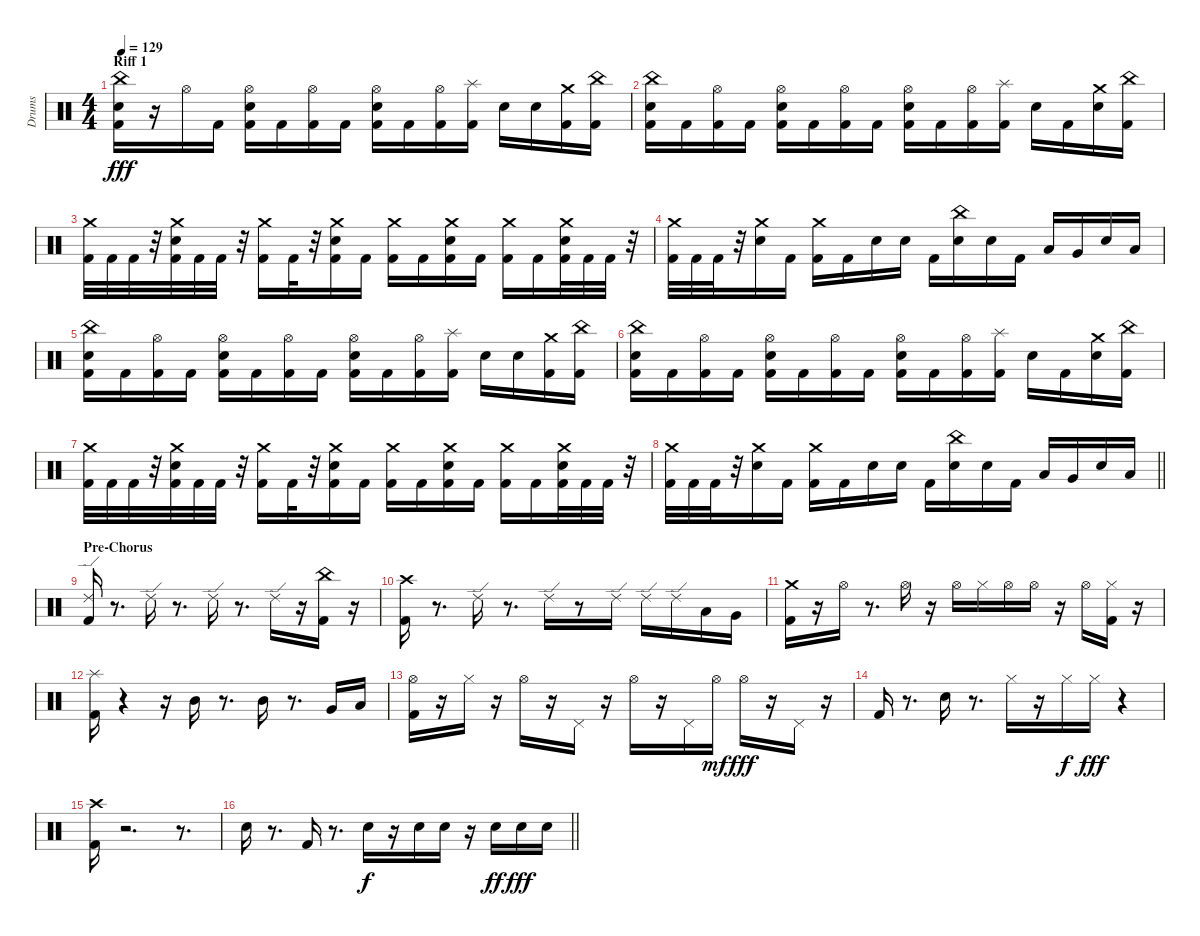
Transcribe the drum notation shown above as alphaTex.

\track ("Drums" "Drums") {instrument percussion}
\staff {score}
\articulation defaults
\ts (4 4)
\section ("" "Riff 1")
\tempo 129
\clef neutral
\ks c
("Kick (hit) 2" "Snare (hit) 2" "China (hit)").16{dy fff} r.16 "Hi-Hat (open)".16 "Kick (hit) 2".16 ("Kick (hit) 2" "Snare (hit) 2" "Hi-Hat (open)").16 "Kick (hit) 2".16 ("Kick (hit) 2" "Hi-Hat (open)").16 "Kick (hit) 2".16 ("Kick (hit) 2" "Snare (hit) 2" "Hi-Hat (open)").16 "Kick (hit) 2".16 ("Kick (hit) 2" "Hi-Hat (open)").16 ("Kick (hit) 2" "Splash (hit)").16 "Snare (hit) 2".16 "Snare (hit) 2".16 ("Kick (hit) 2" "Crash medium (hit)").16 ("Kick (hit) 2" "China (hit)").16 |
("Kick (hit) 2" "Snare (hit) 2" "China (hit)").16 "Kick (hit) 2".16 ("Kick (hit) 2" "Hi-Hat (open)").16 "Kick (hit) 2".16 ("Kick (hit) 2" "Snare (hit) 2" "Hi-Hat (open)").16 "Kick (hit) 2".16 ("Kick (hit) 2" "Hi-Hat (open)").16 "Kick (hit) 2".16 ("Kick (hit) 2" "Snare (hit) 2" "Hi-Hat (open)").16 "Kick (hit) 2".16 ("Kick (hit) 2" "Hi-Hat (open)").16 ("Kick (hit) 2" "Splash (hit)").16 "Snare (hit) 2".16 "Kick (hit) 2".16 ("Snare (hit) 2" "Crash medium (hit)").16 ("Kick (hit) 2" "China (hit)").16 |
("Kick (hit) 2" "Crash medium (hit)").32 "Kick (hit) 2".32 "Kick (hit) 2".32 r.32 ("Kick (hit) 2" "Snare (hit) 2" "Crash medium (hit)").32 "Kick (hit) 2".32 "Kick (hit) 2".32 r.32 ("Kick (hit) 2" "Crash medium (hit)").16 "Kick (hit) 2".32 r.32 ("Kick (hit) 2" "Snare (hit) 2" "Crash medium (hit)").16 "Kick (hit) 2".16 ("Kick (hit) 2" "Crash medium (hit)").16 "Kick (hit) 2".16 ("Kick (hit) 2" "Snare (hit) 2" "Crash medium (hit)").16 "Kick (hit) 2".16 ("Kick (hit) 2" "Crash medium (hit)").16 "Kick (hit) 2".16 ("Kick (hit) 2" "Snare (hit) 2" "Crash medium (hit)").32 "Kick (hit) 2".32 "Kick (hit) 2".32 r.32 |
("Kick (hit) 2" "Crash medium (hit)").32 "Kick (hit) 2".32 "Kick (hit) 2".32 r.32 ("Snare (hit) 2" "Crash medium (hit)").16 "Kick (hit) 2".16 ("Kick (hit) 2" "Crash medium (hit)").16 "Kick (hit) 2".16 "Snare (hit) 2".16 "Snare (hit) 2".16 "Kick (hit) 2".16 ("Snare (hit) 2" "China (hit)").16 "Snare (hit) 2".16 "Kick (hit) 2".16 "Low Tom (hit)".16 "Very Low Tom (hit)".16 "Snare (hit) 2".16 "Low Floor Tom (hit)".16 |
("Kick (hit) 2" "Snare (hit) 2" "China (hit)").16 "Kick (hit) 2".16 ("Kick (hit) 2" "Hi-Hat (open)").16 "Kick (hit) 2".16 ("Kick (hit) 2" "Snare (hit) 2" "Hi-Hat (open)").16 "Kick (hit) 2".16 ("Kick (hit) 2" "Hi-Hat (open)").16 "Kick (hit) 2".16 ("Kick (hit) 2" "Snare (hit) 2" "Hi-Hat (open)").16 "Kick (hit) 2".16 ("Kick (hit) 2" "Hi-Hat (open)").16 ("Kick (hit) 2" "Splash (hit)").16 "Snare (hit) 2".16 "Snare (hit) 2".16 ("Kick (hit) 2" "Crash medium (hit)").16 ("Kick (hit) 2" "China (hit)").16 |
("Kick (hit) 2" "Snare (hit) 2" "China (hit)").16 "Kick (hit) 2".16 ("Kick (hit) 2" "Hi-Hat (open)").16 "Kick (hit) 2".16 ("Kick (hit) 2" "Snare (hit) 2" "Hi-Hat (open)").16 "Kick (hit) 2".16 ("Kick (hit) 2" "Hi-Hat (open)").16 "Kick (hit) 2".16 ("Kick (hit) 2" "Snare (hit) 2" "Hi-Hat (open)").16 "Kick (hit) 2".16 ("Kick (hit) 2" "Hi-Hat (open)").16 ("Kick (hit) 2" "Splash (hit)").16 "Snare (hit) 2".16 "Kick (hit) 2".16 ("Snare (hit) 2" "Crash medium (hit)").16 ("Kick (hit) 2" "China (hit)").16 |
("Kick (hit) 2" "Crash medium (hit)").32 "Kick (hit) 2".32 "Kick (hit) 2".32 r.32 ("Kick (hit) 2" "Snare (hit) 2" "Crash medium (hit)").32 "Kick (hit) 2".32 "Kick (hit) 2".32 r.32 ("Kick (hit) 2" "Crash medium (hit)").16 "Kick (hit) 2".32 r.32 ("Kick (hit) 2" "Snare (hit) 2" "Crash medium (hit)").16 "Kick (hit) 2".16 ("Kick (hit) 2" "Crash medium (hit)").16 "Kick (hit) 2".16 ("Kick (hit) 2" "Snare (hit) 2" "Crash medium (hit)").16 "Kick (hit) 2".16 ("Kick (hit) 2" "Crash medium (hit)").16 "Kick (hit) 2".16 ("Kick (hit) 2" "Snare (hit) 2" "Crash medium (hit)").32 "Kick (hit) 2".32 "Kick (hit) 2".32 r.32 |
\barLineRight lightlight
("Kick (hit) 2" "Crash medium (hit)").32 "Kick (hit) 2".32 "Kick (hit) 2".32 r.32 ("Snare (hit) 2" "Crash medium (hit)").16 "Kick (hit) 2".16 ("Kick (hit) 2" "Crash medium (hit)").16 "Kick (hit) 2".16 "Snare (hit) 2".16 "Snare (hit) 2".16 "Kick (hit) 2".16 ("Snare (hit) 2" "China (hit)").16 "Snare (hit) 2".16 "Kick (hit) 2".16 "Low Tom (hit)".16 "Very Low Tom (hit)".16 "Snare (hit) 2".16 "Low Floor Tom (hit)".16 |
\section ("" "Pre-Chorus")
("Kick (hit) 2" "Ride (edge) 2").16 r.8{d} "Ride (edge) 2".16 r.8{d} "Ride (edge) 2".16 r.8{d} "Ride (edge) 2".16 r.16 ("Kick (hit) 2" "China (hit)").16 r.16 |
("Kick (hit) 2" "Crash high (hit)").16 r.8{d} "Ride (edge) 2".16 r.8{d} "Ride (edge) 2".16 r.8 "Ride (edge) 2".16 "Ride (edge) 2".16 "Ride (edge) 2".16 "Low Tom (hit)".16 "Very Low Tom (hit)".16 |
("Kick (hit) 2" "Crash medium (hit)").16 r.16 "Hi-Hat (open)".16 r.8{d} "Hi-Hat (open)".16 r.16 "Hi-Hat (open)".16 "Hi-Hat (closed)".16 "Hi-Hat (open)".16 "Hi-Hat (open)".16 r.16 "Hi-Hat (open)".16 ("Kick (hit) 2" "Hi-Hat (closed)").16 r.16 |
("Kick (hit) 2" "Splash (hit)").16 r.4 r.16 "Mid Tom (hit)".16 r.8{d} "Mid Tom (hit)".16 r.8{d} "Very Low Tom (hit)".16 "Low Floor Tom (hit)".16 |
("Kick (hit) 2" "Hi-Hat (open)").16 r.16 "Hi-Hat (closed)".16 r.16 "Hi-Hat (open)".16 r.16 "Pedal Hi-Hat (hit)".16 r.16 "Hi-Hat (open)".16 r.16 "Pedal Hi-Hat (hit)".16 "Hi-Hat (open)".16{dy mf} "Hi-Hat (open)".16{dy fff} r.16 "Pedal Hi-Hat (hit)".16 r.16 |
"Kick (hit) 2".16 r.8{d} "Snare (hit) 2".16 r.8{d} "Hi-Hat (closed)".16 r.16 "Hi-Hat (closed)".16{dy f} "Hi-Hat (closed)".16{dy fff} r.4 |
("Kick (hit) 2" "Crash high (hit)").16 r.2{d} r.8{d} |
\barLineRight lightlight "Snare (hit) 2".16
r.8{d} "Kick (hit) 2".16 r.8{d} "Snare (hit) 2".16{dy f} r.16 "Snare (hit) 2".16 "Snare (hit) 2".16 r.16 "Snare (hit) 2".16{dy ff} "Snare (hit) 2".16{dy fff} "Snare (hit) 2".16
